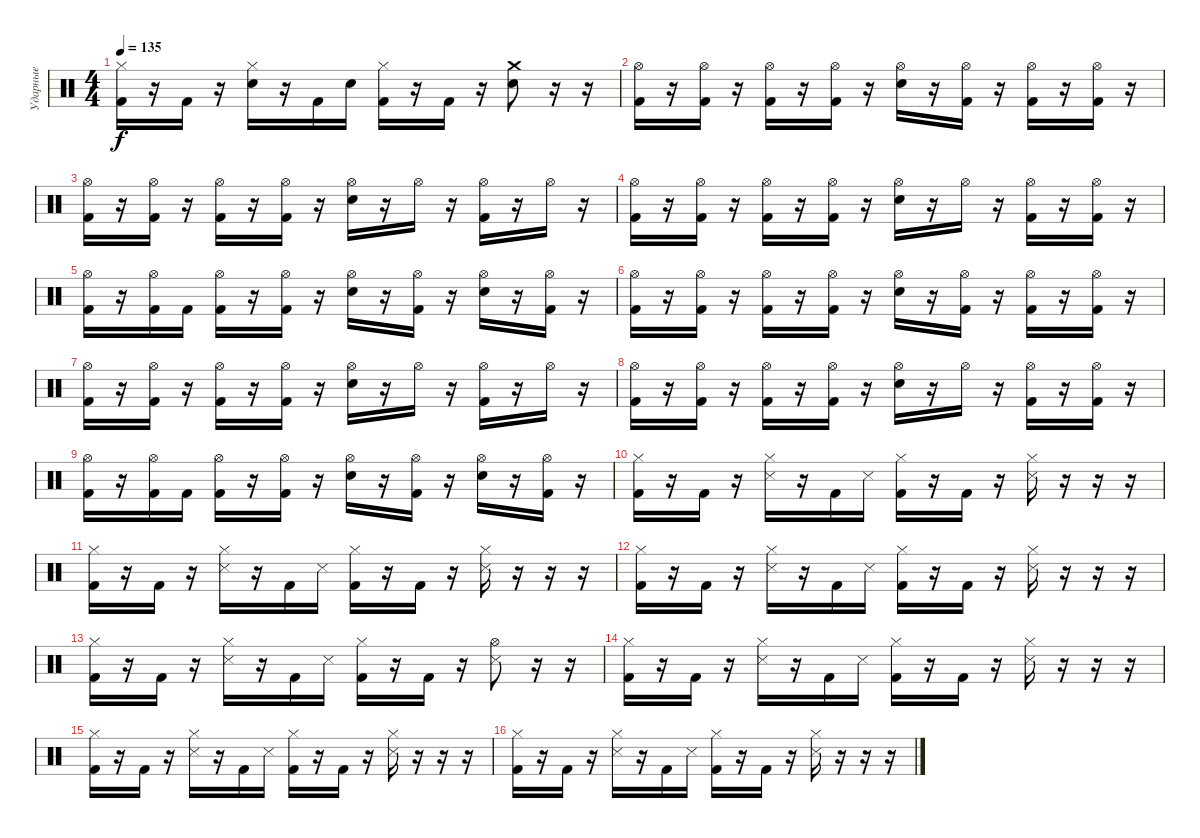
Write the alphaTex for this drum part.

\track ("Ударные" "Ударные") {instrument percussion}
\staff {score}
\articulation defaults
\ts (4 4)
\tempo 135
\clef neutral
\ks c
("Kick (hit) 2" "Hi-Hat (closed)").16{dy f} r.16 "Kick (hit) 2".16 r.16 ("Electric Snare (hit)" "Hi-Hat (closed)").16 r.16 "Kick (hit) 2".16 "Electric Snare (hit)".16 ("Kick (hit) 2" "Hi-Hat (closed)").16 r.16 "Kick (hit) 2".16 r.16 ("Electric Snare (hit)" "Crash medium (hit)").8 r.16 r.16 |
("Kick (hit) 2" "Hi-Hat (open)").16 r.16 ("Kick (hit) 2" "Hi-Hat (open)").16 r.16 ("Kick (hit) 2" "Hi-Hat (open)").16 r.16 ("Kick (hit) 2" "Hi-Hat (open)").16 r.16 ("Electric Snare (hit)" "Hi-Hat (open)").16 r.16 ("Kick (hit) 2" "Hi-Hat (open)").16 r.16 ("Kick (hit) 2" "Hi-Hat (open)").16 r.16 ("Kick (hit) 2" "Hi-Hat (open)").16 r.16 |
("Kick (hit) 2" "Hi-Hat (open)").16 r.16 ("Kick (hit) 2" "Hi-Hat (open)").16 r.16 ("Kick (hit) 2" "Hi-Hat (open)").16 r.16 ("Kick (hit) 2" "Hi-Hat (open)").16 r.16 ("Electric Snare (hit)" "Hi-Hat (open)").16 r.16 "Hi-Hat (open)".16 r.16 ("Hi-Hat (open)" "Kick (hit) 2").16 r.16 "Hi-Hat (open)".16 r.16 |
("Kick (hit) 2" "Hi-Hat (open)").16 r.16 ("Kick (hit) 2" "Hi-Hat (open)").16 r.16 ("Kick (hit) 2" "Hi-Hat (open)").16 r.16 ("Kick (hit) 2" "Hi-Hat (open)").16 r.16 ("Electric Snare (hit)" "Hi-Hat (open)").16 r.16 "Hi-Hat (open)".16 r.16 ("Kick (hit) 2" "Hi-Hat (open)").16 r.16 ("Kick (hit) 2" "Hi-Hat (open)").16 r.16 |
("Hi-Hat (open)" "Kick (hit) 2").16 r.16 ("Hi-Hat (open)" "Kick (hit) 2").16 "Kick (hit) 2".16 ("Kick (hit) 2" "Hi-Hat (open)").16 r.16 ("Kick (hit) 2" "Hi-Hat (open)").16 r.16 ("Electric Snare (hit)" "Hi-Hat (open)").16 r.16 ("Kick (hit) 2" "Hi-Hat (open)").16 r.16 ("Electric Snare (hit)" "Hi-Hat (open)").16 r.16 ("Kick (hit) 2" "Hi-Hat (open)").16 r.16 |
("Kick (hit) 2" "Hi-Hat (open)").16 r.16 ("Kick (hit) 2" "Hi-Hat (open)").16 r.16 ("Kick (hit) 2" "Hi-Hat (open)").16 r.16 ("Kick (hit) 2" "Hi-Hat (open)").16 r.16 ("Electric Snare (hit)" "Hi-Hat (open)").16 r.16 ("Kick (hit) 2" "Hi-Hat (open)").16 r.16 ("Kick (hit) 2" "Hi-Hat (open)").16 r.16 ("Kick (hit) 2" "Hi-Hat (open)").16 r.16 |
("Kick (hit) 2" "Hi-Hat (open)").16 r.16 ("Kick (hit) 2" "Hi-Hat (open)").16 r.16 ("Kick (hit) 2" "Hi-Hat (open)").16 r.16 ("Kick (hit) 2" "Hi-Hat (open)").16 r.16 ("Electric Snare (hit)" "Hi-Hat (open)").16 r.16 "Hi-Hat (open)".16 r.16 ("Hi-Hat (open)" "Kick (hit) 2").16 r.16 "Hi-Hat (open)".16 r.16 |
("Kick (hit) 2" "Hi-Hat (open)").16 r.16 ("Kick (hit) 2" "Hi-Hat (open)").16 r.16 ("Kick (hit) 2" "Hi-Hat (open)").16 r.16 ("Kick (hit) 2" "Hi-Hat (open)").16 r.16 ("Electric Snare (hit)" "Hi-Hat (open)").16 r.16 "Hi-Hat (open)".16 r.16 ("Kick (hit) 2" "Hi-Hat (open)").16 r.16 ("Kick (hit) 2" "Hi-Hat (open)").16 r.16 |
("Hi-Hat (open)" "Kick (hit) 2").16 r.16 ("Hi-Hat (open)" "Kick (hit) 2").16 "Kick (hit) 2".16 ("Kick (hit) 2" "Hi-Hat (open)").16 r.16 ("Kick (hit) 2" "Hi-Hat (open)").16 r.16 ("Electric Snare (hit)" "Hi-Hat (open)").16 r.16 ("Kick (hit) 2" "Hi-Hat (open)").16 r.16 ("Electric Snare (hit)" "Hi-Hat (open)").16 r.16 ("Kick (hit) 2" "Hi-Hat (open)").16 r.16 |
("Kick (hit) 2" "Hi-Hat (closed)").16 r.16 "Kick (hit) 2".16 r.16 ("Snare (side stick) 3" "Hi-Hat (closed)").16 r.16 "Kick (hit) 2".16 "Snare (side stick) 3".16 ("Kick (hit) 2" "Hi-Hat (closed)").16 r.16 "Kick (hit) 2".16 r.16 ("Snare (side stick) 3" "Hi-Hat (closed)").16 r.16 r.16 r.16 |
("Kick (hit) 2" "Hi-Hat (closed)").16 r.16 "Kick (hit) 2".16 r.16 ("Snare (side stick) 3" "Hi-Hat (closed)").16 r.16 "Kick (hit) 2".16 "Snare (side stick) 3".16 ("Kick (hit) 2" "Hi-Hat (closed)").16 r.16 "Kick (hit) 2".16 r.16 ("Snare (side stick) 3" "Hi-Hat (closed)").16 r.16 r.16 r.16 |
("Kick (hit) 2" "Hi-Hat (closed)").16 r.16 "Kick (hit) 2".16 r.16 ("Snare (side stick) 3" "Hi-Hat (closed)").16 r.16 "Kick (hit) 2".16 "Snare (side stick) 3".16 ("Kick (hit) 2" "Hi-Hat (closed)").16 r.16 "Kick (hit) 2".16 r.16 ("Snare (side stick) 3" "Hi-Hat (closed)").16 r.16 r.16 r.16 |
("Kick (hit) 2" "Hi-Hat (closed)").16 r.16 "Kick (hit) 2".16 r.16 ("Snare (side stick) 3" "Hi-Hat (closed)").16 r.16 "Kick (hit) 2".16 "Snare (side stick) 3".16 ("Kick (hit) 2" "Hi-Hat (closed)").16 r.16 "Kick (hit) 2".16 r.16 ("Snare (side stick) 3" "Hi-Hat (open)").8 r.16 r.16 |
("Kick (hit) 2" "Hi-Hat (closed)").16 r.16 "Kick (hit) 2".16 r.16 ("Snare (side stick) 3" "Hi-Hat (closed)").16 r.16 "Kick (hit) 2".16 "Snare (side stick) 3".16 ("Kick (hit) 2" "Hi-Hat (closed)").16 r.16 "Kick (hit) 2".16 r.16 ("Snare (side stick) 3" "Hi-Hat (closed)").16 r.16 r.16 r.16 |
("Kick (hit) 2" "Hi-Hat (closed)").16 r.16 "Kick (hit) 2".16 r.16 ("Snare (side stick) 3" "Hi-Hat (closed)").16 r.16 "Kick (hit) 2".16 "Snare (side stick) 3".16 ("Kick (hit) 2" "Hi-Hat (closed)").16 r.16 "Kick (hit) 2".16 r.16 ("Snare (side stick) 3" "Hi-Hat (closed)").16 r.16 r.16 r.16 |
("Kick (hit) 2" "Hi-Hat (closed)").16 r.16 "Kick (hit) 2".16 r.16 ("Snare (side stick) 3" "Hi-Hat (closed)").16 r.16 "Kick (hit) 2".16 "Snare (side stick) 3".16 ("Kick (hit) 2" "Hi-Hat (closed)").16 r.16 "Kick (hit) 2".16 r.16 ("Snare (side stick) 3" "Hi-Hat (closed)").16 r.16 r.16 r.16
